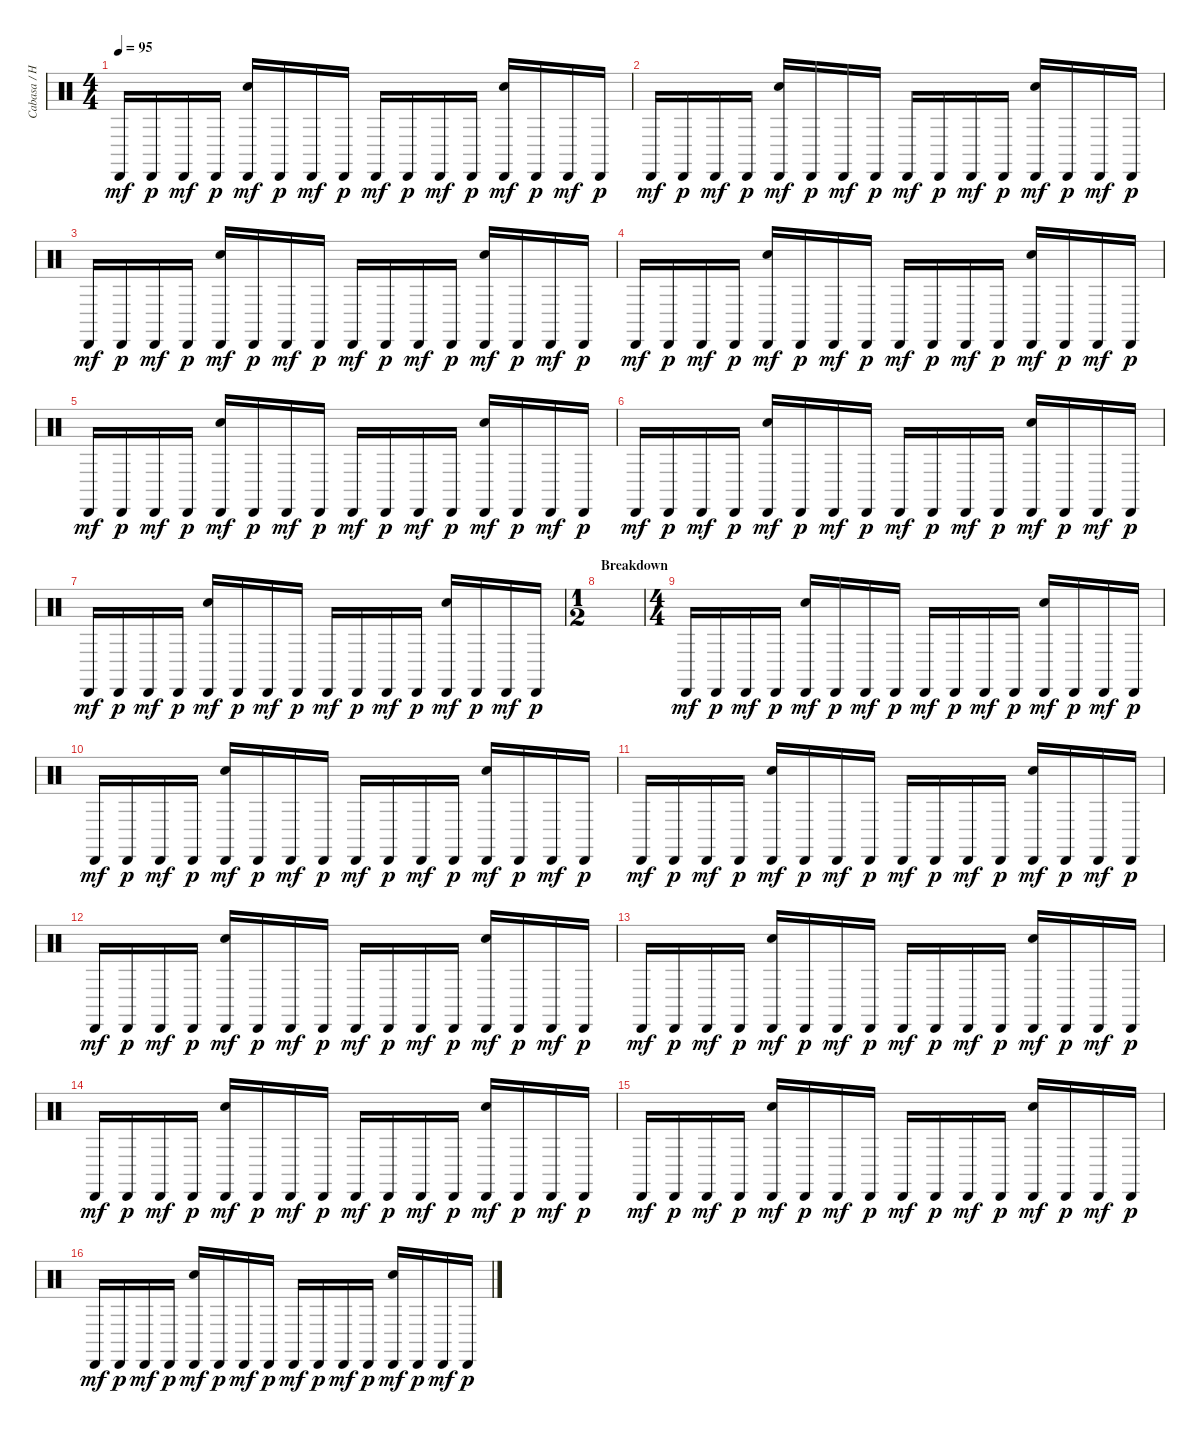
\track ("Cabasa / Hand Clap" "Cabasa / H") {instrument percussion}
\staff {score}
\articulation defaults
\ts (4 4)
\tempo 95
\clef neutral
\ks aminor "Cabasa (hit)".16{dy mf} "Cabasa (hit)".16{dy p} "Cabasa (hit)".16{dy mf} "Cabasa (hit)".16{dy p}
("Hand Clap (hit)" "Cabasa (hit)").16{dy mf} "Cabasa (hit)".16{dy p} "Cabasa (hit)".16{dy mf} "Cabasa (hit)".16{dy p} "Cabasa (hit)".16{dy mf} "Cabasa (hit)".16{dy p} "Cabasa (hit)".16{dy mf} "Cabasa (hit)".16{dy p} ("Hand Clap (hit)" "Cabasa (hit)").16{dy mf} "Cabasa (hit)".16{dy p} "Cabasa (hit)".16{dy mf} "Cabasa (hit)".16{dy p} |
"Cabasa (hit)".16{dy mf} "Cabasa (hit)".16{dy p} "Cabasa (hit)".16{dy mf} "Cabasa (hit)".16{dy p} ("Hand Clap (hit)" "Cabasa (hit)").16{dy mf} "Cabasa (hit)".16{dy p} "Cabasa (hit)".16{dy mf} "Cabasa (hit)".16{dy p} "Cabasa (hit)".16{dy mf} "Cabasa (hit)".16{dy p} "Cabasa (hit)".16{dy mf} "Cabasa (hit)".16{dy p} ("Hand Clap (hit)" "Cabasa (hit)").16{dy mf} "Cabasa (hit)".16{dy p} "Cabasa (hit)".16{dy mf} "Cabasa (hit)".16{dy p} |
"Cabasa (hit)".16{dy mf} "Cabasa (hit)".16{dy p} "Cabasa (hit)".16{dy mf} "Cabasa (hit)".16{dy p} ("Hand Clap (hit)" "Cabasa (hit)").16{dy mf} "Cabasa (hit)".16{dy p} "Cabasa (hit)".16{dy mf} "Cabasa (hit)".16{dy p} "Cabasa (hit)".16{dy mf} "Cabasa (hit)".16{dy p} "Cabasa (hit)".16{dy mf} "Cabasa (hit)".16{dy p} ("Hand Clap (hit)" "Cabasa (hit)").16{dy mf} "Cabasa (hit)".16{dy p} "Cabasa (hit)".16{dy mf} "Cabasa (hit)".16{dy p} |
"Cabasa (hit)".16{dy mf} "Cabasa (hit)".16{dy p} "Cabasa (hit)".16{dy mf} "Cabasa (hit)".16{dy p} ("Hand Clap (hit)" "Cabasa (hit)").16{dy mf} "Cabasa (hit)".16{dy p} "Cabasa (hit)".16{dy mf} "Cabasa (hit)".16{dy p} "Cabasa (hit)".16{dy mf} "Cabasa (hit)".16{dy p} "Cabasa (hit)".16{dy mf} "Cabasa (hit)".16{dy p} ("Hand Clap (hit)" "Cabasa (hit)").16{dy mf} "Cabasa (hit)".16{dy p} "Cabasa (hit)".16{dy mf} "Cabasa (hit)".16{dy p} |
"Cabasa (hit)".16{dy mf} "Cabasa (hit)".16{dy p} "Cabasa (hit)".16{dy mf} "Cabasa (hit)".16{dy p} ("Hand Clap (hit)" "Cabasa (hit)").16{dy mf} "Cabasa (hit)".16{dy p} "Cabasa (hit)".16{dy mf} "Cabasa (hit)".16{dy p} "Cabasa (hit)".16{dy mf} "Cabasa (hit)".16{dy p} "Cabasa (hit)".16{dy mf} "Cabasa (hit)".16{dy p} ("Hand Clap (hit)" "Cabasa (hit)").16{dy mf} "Cabasa (hit)".16{dy p} "Cabasa (hit)".16{dy mf} "Cabasa (hit)".16{dy p} |
"Cabasa (hit)".16{dy mf} "Cabasa (hit)".16{dy p} "Cabasa (hit)".16{dy mf} "Cabasa (hit)".16{dy p} ("Hand Clap (hit)" "Cabasa (hit)").16{dy mf} "Cabasa (hit)".16{dy p} "Cabasa (hit)".16{dy mf} "Cabasa (hit)".16{dy p} "Cabasa (hit)".16{dy mf} "Cabasa (hit)".16{dy p} "Cabasa (hit)".16{dy mf} "Cabasa (hit)".16{dy p} ("Hand Clap (hit)" "Cabasa (hit)").16{dy mf} "Cabasa (hit)".16{dy p} "Cabasa (hit)".16{dy mf} "Cabasa (hit)".16{dy p} |
"Cabasa (hit)".16{dy mf} "Cabasa (hit)".16{dy p} "Cabasa (hit)".16{dy mf} "Cabasa (hit)".16{dy p} ("Hand Clap (hit)" "Cabasa (hit)").16{dy mf} "Cabasa (hit)".16{dy p} "Cabasa (hit)".16{dy mf} "Cabasa (hit)".16{dy p} "Cabasa (hit)".16{dy mf} "Cabasa (hit)".16{dy p} "Cabasa (hit)".16{dy mf} "Cabasa (hit)".16{dy p} ("Hand Clap (hit)" "Cabasa (hit)").16{dy mf} "Cabasa (hit)".16{dy p} "Cabasa (hit)".16{dy mf} "Cabasa (hit)".16{dy p} |
\ts (1 2)
\section ("" "Breakdown")
|
\ts (4 4)
"Cabasa (hit)".16{dy mf} "Cabasa (hit)".16{dy p} "Cabasa (hit)".16{dy mf} "Cabasa (hit)".16{dy p} ("Hand Clap (hit)" "Cabasa (hit)").16{dy mf} "Cabasa (hit)".16{dy p} "Cabasa (hit)".16{dy mf} "Cabasa (hit)".16{dy p} "Cabasa (hit)".16{dy mf} "Cabasa (hit)".16{dy p} "Cabasa (hit)".16{dy mf} "Cabasa (hit)".16{dy p} ("Hand Clap (hit)" "Cabasa (hit)").16{dy mf} "Cabasa (hit)".16{dy p} "Cabasa (hit)".16{dy mf} "Cabasa (hit)".16{dy p} |
"Cabasa (hit)".16{dy mf} "Cabasa (hit)".16{dy p} "Cabasa (hit)".16{dy mf} "Cabasa (hit)".16{dy p} ("Hand Clap (hit)" "Cabasa (hit)").16{dy mf} "Cabasa (hit)".16{dy p} "Cabasa (hit)".16{dy mf} "Cabasa (hit)".16{dy p} "Cabasa (hit)".16{dy mf} "Cabasa (hit)".16{dy p} "Cabasa (hit)".16{dy mf} "Cabasa (hit)".16{dy p} ("Hand Clap (hit)" "Cabasa (hit)").16{dy mf} "Cabasa (hit)".16{dy p} "Cabasa (hit)".16{dy mf} "Cabasa (hit)".16{dy p} |
"Cabasa (hit)".16{dy mf} "Cabasa (hit)".16{dy p} "Cabasa (hit)".16{dy mf} "Cabasa (hit)".16{dy p} ("Hand Clap (hit)" "Cabasa (hit)").16{dy mf} "Cabasa (hit)".16{dy p} "Cabasa (hit)".16{dy mf} "Cabasa (hit)".16{dy p} "Cabasa (hit)".16{dy mf} "Cabasa (hit)".16{dy p} "Cabasa (hit)".16{dy mf} "Cabasa (hit)".16{dy p} ("Hand Clap (hit)" "Cabasa (hit)").16{dy mf} "Cabasa (hit)".16{dy p} "Cabasa (hit)".16{dy mf} "Cabasa (hit)".16{dy p} |
"Cabasa (hit)".16{dy mf} "Cabasa (hit)".16{dy p} "Cabasa (hit)".16{dy mf} "Cabasa (hit)".16{dy p} ("Hand Clap (hit)" "Cabasa (hit)").16{dy mf} "Cabasa (hit)".16{dy p} "Cabasa (hit)".16{dy mf} "Cabasa (hit)".16{dy p} "Cabasa (hit)".16{dy mf} "Cabasa (hit)".16{dy p} "Cabasa (hit)".16{dy mf} "Cabasa (hit)".16{dy p} ("Hand Clap (hit)" "Cabasa (hit)").16{dy mf} "Cabasa (hit)".16{dy p} "Cabasa (hit)".16{dy mf} "Cabasa (hit)".16{dy p} |
"Cabasa (hit)".16{dy mf} "Cabasa (hit)".16{dy p} "Cabasa (hit)".16{dy mf} "Cabasa (hit)".16{dy p} ("Hand Clap (hit)" "Cabasa (hit)").16{dy mf} "Cabasa (hit)".16{dy p} "Cabasa (hit)".16{dy mf} "Cabasa (hit)".16{dy p} "Cabasa (hit)".16{dy mf} "Cabasa (hit)".16{dy p} "Cabasa (hit)".16{dy mf} "Cabasa (hit)".16{dy p} ("Hand Clap (hit)" "Cabasa (hit)").16{dy mf} "Cabasa (hit)".16{dy p} "Cabasa (hit)".16{dy mf} "Cabasa (hit)".16{dy p} |
"Cabasa (hit)".16{dy mf} "Cabasa (hit)".16{dy p} "Cabasa (hit)".16{dy mf} "Cabasa (hit)".16{dy p} ("Hand Clap (hit)" "Cabasa (hit)").16{dy mf} "Cabasa (hit)".16{dy p} "Cabasa (hit)".16{dy mf} "Cabasa (hit)".16{dy p} "Cabasa (hit)".16{dy mf} "Cabasa (hit)".16{dy p} "Cabasa (hit)".16{dy mf} "Cabasa (hit)".16{dy p} ("Hand Clap (hit)" "Cabasa (hit)").16{dy mf} "Cabasa (hit)".16{dy p} "Cabasa (hit)".16{dy mf} "Cabasa (hit)".16{dy p} |
"Cabasa (hit)".16{dy mf} "Cabasa (hit)".16{dy p} "Cabasa (hit)".16{dy mf} "Cabasa (hit)".16{dy p} ("Hand Clap (hit)" "Cabasa (hit)").16{dy mf} "Cabasa (hit)".16{dy p} "Cabasa (hit)".16{dy mf} "Cabasa (hit)".16{dy p} "Cabasa (hit)".16{dy mf} "Cabasa (hit)".16{dy p} "Cabasa (hit)".16{dy mf} "Cabasa (hit)".16{dy p} ("Hand Clap (hit)" "Cabasa (hit)").16{dy mf} "Cabasa (hit)".16{dy p} "Cabasa (hit)".16{dy mf} "Cabasa (hit)".16{dy p} |
"Cabasa (hit)".16{dy mf} "Cabasa (hit)".16{dy p} "Cabasa (hit)".16{dy mf} "Cabasa (hit)".16{dy p} ("Hand Clap (hit)" "Cabasa (hit)").16{dy mf} "Cabasa (hit)".16{dy p} "Cabasa (hit)".16{dy mf} "Cabasa (hit)".16{dy p} "Cabasa (hit)".16{dy mf} "Cabasa (hit)".16{dy p} "Cabasa (hit)".16{dy mf} "Cabasa (hit)".16{dy p} ("Hand Clap (hit)" "Cabasa (hit)").16{dy mf} "Cabasa (hit)".16{dy p} "Cabasa (hit)".16{dy mf} "Cabasa (hit)".16{dy p}
